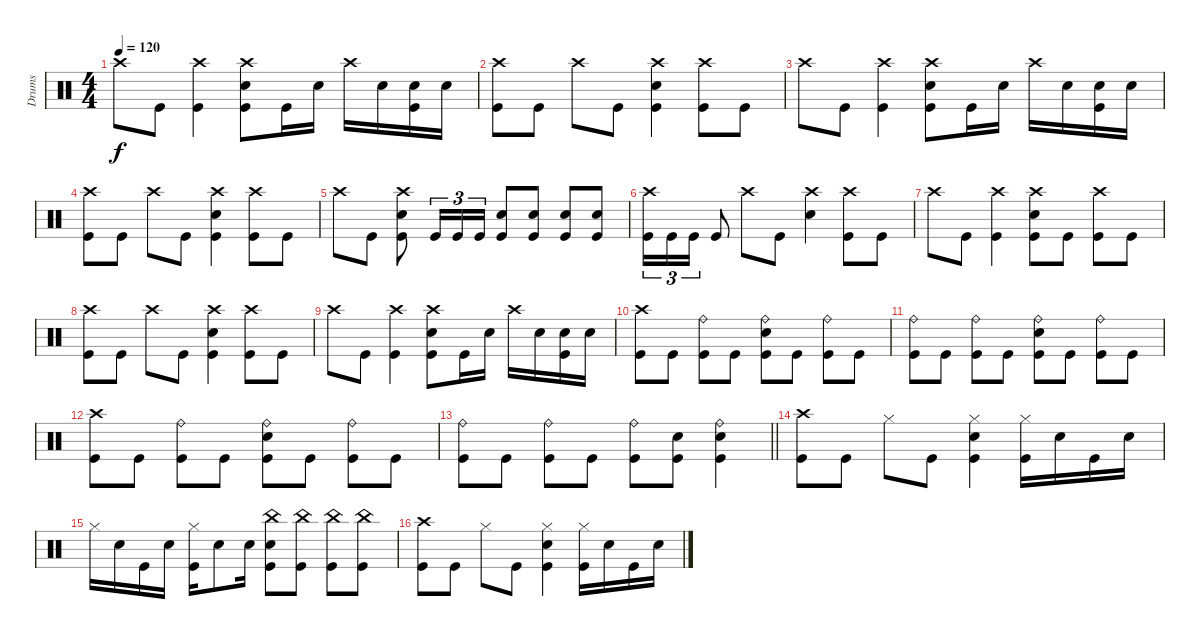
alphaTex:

\track ("Drums" "Drums") {instrument percussion}
\staff {score}
\articulation defaults
\ts (4 4)
\tempo 120
\clef neutral
\ks c "Crash high (hit)".8{dy f} "Kick (hit)".8
("Crash high (hit)" "Kick (hit)").4 ("Snare (hit) 2" "Crash high (hit)" "Kick (hit)").8 "Kick (hit)".16 "Snare (hit) 2".16 "Crash high (hit)".16 "Snare (hit) 2".16 ("Snare (hit) 2" "Kick (hit)").16 "Snare (hit) 2".16 |
("Kick (hit)" "Crash high (hit)").8 "Kick (hit)".8 "Crash high (hit)".8 "Kick (hit)".8 ("Kick (hit)" "Snare (hit) 2" "Crash high (hit)").4 ("Kick (hit)" "Crash high (hit)").8 "Kick (hit)".8 |
"Crash high (hit)".8 "Kick (hit)".8 ("Kick (hit)" "Crash high (hit)").4 ("Kick (hit)" "Snare (hit) 2" "Crash high (hit)").8 "Kick (hit)".16 "Snare (hit) 2".16 "Crash high (hit)".16 "Snare (hit) 2".16 ("Snare (hit) 2" "Kick (hit)").16 "Snare (hit) 2".16 |
("Kick (hit)" "Crash high (hit)").8 "Kick (hit)".8 "Crash high (hit)".8 "Kick (hit)".8 ("Kick (hit)" "Snare (hit) 2" "Crash high (hit)").4 ("Kick (hit)" "Crash high (hit)").8 "Kick (hit)".8 |
"Crash high (hit)".8 "Kick (hit)".8 ("Kick (hit)" "Snare (hit) 2" "Crash high (hit)").8 "Kick (hit)".16{tu (3 2)} "Kick (hit)".16{tu (3 2)} "Kick (hit)".16{tu (3 2)} ("Snare (hit) 2" "Kick (hit)").8 ("Snare (hit) 2" "Kick (hit)").8 ("Snare (hit) 2" "Kick (hit)").8 ("Snare (hit) 2" "Kick (hit)").8 |
("Kick (hit)" "Crash high (hit)").16{tu (3 2)} "Kick (hit)".16{tu (3 2)} "Kick (hit)".16{tu (3 2)} "Kick (hit)".8 "Crash high (hit)".8 "Kick (hit)".8 ("Snare (hit) 2" "Crash high (hit)").4 ("Kick (hit)" "Crash high (hit)").8 "Kick (hit)".8 |
"Crash high (hit)".8 "Kick (hit)".8 ("Crash high (hit)" "Kick (hit)").4 ("Snare (hit) 2" "Crash high (hit)" "Kick (hit)").8 "Kick (hit)".8 ("Kick (hit)" "Crash high (hit)").8 "Kick (hit)".8 |
("Kick (hit)" "Crash high (hit)").8 "Kick (hit)".8 "Crash high (hit)".8 "Kick (hit)".8 ("Kick (hit)" "Snare (hit) 2" "Crash high (hit)").4 ("Kick (hit)" "Crash high (hit)").8 "Kick (hit)".8 |
"Crash high (hit)".8 "Kick (hit)".8 ("Kick (hit)" "Crash high (hit)").4 ("Kick (hit)" "Snare (hit) 2" "Crash high (hit)").8 "Kick (hit)".16 "Snare (hit) 2".16 "Crash high (hit)".16 "Snare (hit) 2".16 ("Snare (hit) 2" "Kick (hit)").16 "Snare (hit) 2".16 |
("Crash high (hit)" "Kick (hit)").8 "Kick (hit)".8 ("Ride (bell)" "Kick (hit)").8 "Kick (hit)".8 ("Snare (hit) 2" "Ride (bell)" "Kick (hit)").8 "Kick (hit)".8 ("Ride (bell)" "Kick (hit)").8 "Kick (hit)".8 |
("Kick (hit)" "Ride (bell)").8 "Kick (hit)".8 ("Kick (hit)" "Ride (bell)").8 "Kick (hit)".8 ("Kick (hit)" "Snare (hit) 2" "Ride (bell)").8 "Kick (hit)".8 ("Kick (hit)" "Ride (bell)").8 "Kick (hit)".8 |
("Kick (hit)" "Crash high (hit)").8 "Kick (hit)".8 ("Kick (hit)" "Ride (bell)").8 "Kick (hit)".8 ("Kick (hit)" "Snare (hit) 2" "Ride (bell)").8 "Kick (hit)".8 ("Kick (hit)" "Ride (bell)").8 "Kick (hit)".8 |
\barLineRight lightlight
("Ride (bell)" "Kick (hit)").8 "Kick (hit)".8 ("Ride (bell)" "Kick (hit)").8 "Kick (hit)".8 ("Ride (bell)" "Kick (hit)").8 ("Snare (hit) 2" "Kick (hit)").8 ("Snare (hit) 2" "Ride (bell)" "Kick (hit)").4 |
("Crash high (hit)" "Kick (hit)").8{volume 6} "Kick (hit)".8 "Hi-Hat (closed)".8 "Kick (hit)".8 ("Snare (hit) 2" "Hi-Hat (closed)" "Kick (hit)").4 ("Hi-Hat (closed)" "Kick (hit)").16 "Snare (hit) 2".16 "Kick (hit)".16 "Snare (hit) 2".16 |
"Hi-Hat (closed)".16 "Snare (hit) 2".16 "Kick (hit)".16 "Snare (hit) 2".16 ("Hi-Hat (closed)" "Kick (hit)").16 "Snare (hit) 2".8 "Snare (hit) 2".16 ("Kick (hit)" "Snare (hit) 2" "China (hit)").8 ("Kick (hit)" "China (hit)").8 ("Kick (hit)" "China (hit)").8 ("Kick (hit)" "China (hit)").8 |
("Kick (hit)" "Crash high (hit)").8 "Kick (hit)".8 "Hi-Hat (closed)".8 "Kick (hit)".8 ("Kick (hit)" "Snare (hit) 2" "Hi-Hat (closed)").4 ("Kick (hit)" "Hi-Hat (closed)").16 "Snare (hit) 2".16 "Kick (hit)".16 "Snare (hit) 2".16
